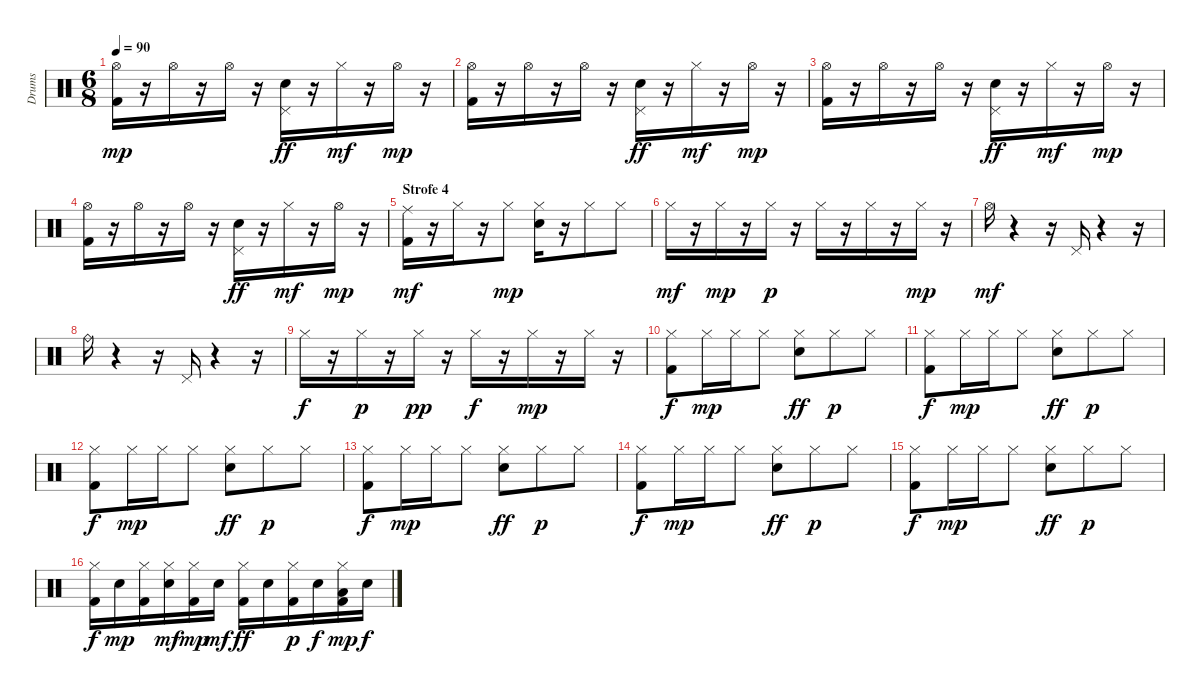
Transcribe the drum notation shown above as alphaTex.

\track ("Drums" "Drums") {instrument percussion}
\staff {score}
\articulation defaults
\ts (6 8)
\tempo 90
\clef neutral
\ks c
("Hi-Hat (open)" "Kick (hit) 2").16{dy mp} r.16 "Hi-Hat (open)".16 r.16 "Hi-Hat (open)".16 r.16 ("Pedal Hi-Hat (hit)" "Snare (hit) 2").16{dy ff} r.16 "Hi-Hat (closed)".16{dy mf} r.16 "Hi-Hat (open)".16{dy mp} r.16 |
("Hi-Hat (open)" "Kick (hit) 2").16 r.16 "Hi-Hat (open)".16 r.16 "Hi-Hat (open)".16 r.16 ("Pedal Hi-Hat (hit)" "Snare (hit) 2").16{dy ff} r.16 "Hi-Hat (closed)".16{dy mf} r.16 "Hi-Hat (open)".16{dy mp} r.16 |
("Hi-Hat (open)" "Kick (hit) 2").16 r.16 "Hi-Hat (open)".16 r.16 "Hi-Hat (open)".16 r.16 ("Pedal Hi-Hat (hit)" "Snare (hit) 2").16{dy ff} r.16 "Hi-Hat (closed)".16{dy mf} r.16 "Hi-Hat (open)".16{dy mp} r.16 |
("Hi-Hat (open)" "Kick (hit) 2").16 r.16 "Hi-Hat (open)".16 r.16 "Hi-Hat (open)".16 r.16 ("Pedal Hi-Hat (hit)" "Snare (hit) 2").16{dy ff} r.16 "Hi-Hat (closed)".16{dy mf} r.16 "Hi-Hat (open)".16{dy mp} r.16 |
\section ("" "Strofe 4")
("Kick (hit) 2" "Ride (middle)").16{dy mf} r.16 "Hi-Hat (closed)".16 r.16 "Hi-Hat (closed)".8{dy mp} ("Hi-Hat (closed)" "Snare (hit) 2").16 r.16 "Hi-Hat (closed)".8 "Hi-Hat (closed)".8 |
"Hi-Hat (closed)".16{dy mf} r.16 "Hi-Hat (closed)".16{dy mp} r.16 "Hi-Hat (closed)".16{dy p} r.16 "Hi-Hat (closed)".16 r.16 "Hi-Hat (closed)".16 r.16 "Hi-Hat (closed)".16{dy mp} r.16 |
"Hi-Hat (open)".16{dy mf} r.4 r.16 "Pedal Hi-Hat (hit)".16 r.4 r.16 |
"Ride (bell)".16 r.4 r.16 "Pedal Hi-Hat (hit)".16 r.4 r.16 |
"Hi-Hat (closed)".16{dy f} r.16 "Hi-Hat (closed)".16{dy p} r.16 "Hi-Hat (closed)".16{dy pp} r.16 "Hi-Hat (closed)".16{dy f} r.16 "Hi-Hat (closed)".16{dy mp} r.16 "Hi-Hat (closed)".16 r.16 |
("Kick (hit) 2" "Hi-Hat (closed)").8{dy f} "Hi-Hat (closed)".16{dy mp} "Hi-Hat (closed)".16 "Hi-Hat (closed)".8 ("Hi-Hat (closed)" "Snare (hit) 2").8{dy ff} "Hi-Hat (closed)".8{dy p} "Hi-Hat (closed)".8 |
("Kick (hit) 2" "Hi-Hat (closed)").8{dy f} "Hi-Hat (closed)".16{dy mp} "Hi-Hat (closed)".16 "Hi-Hat (closed)".8 ("Hi-Hat (closed)" "Snare (hit) 2").8{dy ff} "Hi-Hat (closed)".8{dy p} "Hi-Hat (closed)".8 |
("Kick (hit) 2" "Hi-Hat (closed)").8{dy f} "Hi-Hat (closed)".16{dy mp} "Hi-Hat (closed)".16 "Hi-Hat (closed)".8 ("Hi-Hat (closed)" "Snare (hit) 2").8{dy ff} "Hi-Hat (closed)".8{dy p} "Hi-Hat (closed)".8 |
("Kick (hit) 2" "Hi-Hat (closed)").8{dy f} "Hi-Hat (closed)".16{dy mp} "Hi-Hat (closed)".16 "Hi-Hat (closed)".8 ("Hi-Hat (closed)" "Snare (hit) 2").8{dy ff} "Hi-Hat (closed)".8{dy p} "Hi-Hat (closed)".8 |
("Kick (hit) 2" "Hi-Hat (closed)").8{dy f} "Hi-Hat (closed)".16{dy mp} "Hi-Hat (closed)".16 "Hi-Hat (closed)".8 ("Hi-Hat (closed)" "Snare (hit) 2").8{dy ff} "Hi-Hat (closed)".8{dy p} "Hi-Hat (closed)".8 |
("Kick (hit) 2" "Hi-Hat (closed)").8{dy f} "Hi-Hat (closed)".16{dy mp} "Hi-Hat (closed)".16 "Hi-Hat (closed)".8 ("Hi-Hat (closed)" "Snare (hit) 2").8{dy ff} "Hi-Hat (closed)".8{dy p} "Hi-Hat (closed)".8 |
("Kick (hit) 2" "Hi-Hat (closed)").16{dy f} "Snare (hit) 2".16{dy mp} ("Hi-Hat (closed)" "Kick (hit) 2").16 ("Hi-Hat (closed)" "Snare (hit) 2").16{dy mf} ("Hi-Hat (closed)" "Kick (hit) 2").16{dy mp} "Snare (hit) 2".16{dy mf} ("Hi-Hat (closed)" "Kick (hit) 2").16{dy ff} "Snare (hit) 2".16 ("Hi-Hat (closed)" "Kick (hit) 2").16{dy p} "Snare (hit) 2".16{dy f} ("Hi-Hat (closed)" "Low Tom (hit)" "Kick (hit) 2").16{dy mp} "Snare (hit) 2".16{dy f}
